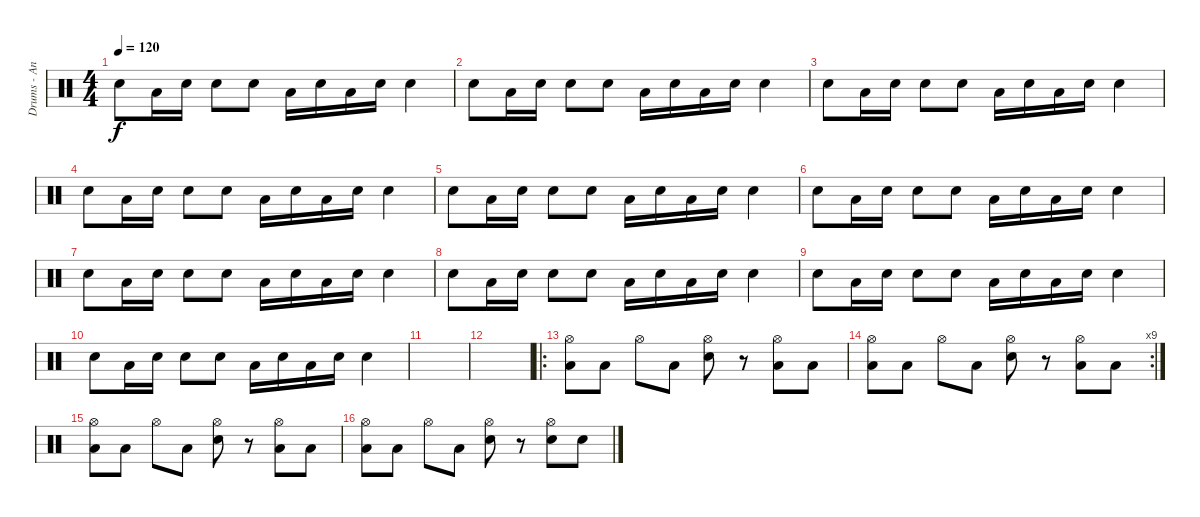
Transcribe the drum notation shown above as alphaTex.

\track ("Drums - Andrew" "Drums - An") {instrument percussion}
\staff {score}
\articulation defaults
\ts (4 4)
\tempo 120
\clef neutral
\ks c "Electric Snare (hit)".8{dy f} "Low Tom (hit)".16 "Electric Snare (hit)".16 "Electric Snare (hit)".8 "Electric Snare (hit)".8 "Low Tom (hit)".16 "Electric Snare (hit)".16 "Low Tom (hit)".16 "Electric Snare (hit)".16 "Electric Snare (hit)".4
|
"Electric Snare (hit)".8 "Low Tom (hit)".16 "Electric Snare (hit)".16 "Electric Snare (hit)".8 "Electric Snare (hit)".8 "Low Tom (hit)".16 "Electric Snare (hit)".16 "Low Tom (hit)".16 "Electric Snare (hit)".16 "Electric Snare (hit)".4 |
"Electric Snare (hit)".8 "Low Tom (hit)".16 "Electric Snare (hit)".16 "Electric Snare (hit)".8 "Electric Snare (hit)".8 "Low Tom (hit)".16 "Electric Snare (hit)".16 "Low Tom (hit)".16 "Electric Snare (hit)".16 "Electric Snare (hit)".4 |
"Electric Snare (hit)".8 "Low Tom (hit)".16 "Electric Snare (hit)".16 "Electric Snare (hit)".8 "Electric Snare (hit)".8 "Low Tom (hit)".16 "Electric Snare (hit)".16 "Low Tom (hit)".16 "Electric Snare (hit)".16 "Electric Snare (hit)".4 |
"Electric Snare (hit)".8 "Low Tom (hit)".16 "Electric Snare (hit)".16 "Electric Snare (hit)".8 "Electric Snare (hit)".8 "Low Tom (hit)".16 "Electric Snare (hit)".16 "Low Tom (hit)".16 "Electric Snare (hit)".16 "Electric Snare (hit)".4 |
"Electric Snare (hit)".8 "Low Tom (hit)".16 "Electric Snare (hit)".16 "Electric Snare (hit)".8 "Electric Snare (hit)".8 "Low Tom (hit)".16 "Electric Snare (hit)".16 "Low Tom (hit)".16 "Electric Snare (hit)".16 "Electric Snare (hit)".4 |
"Electric Snare (hit)".8 "Low Tom (hit)".16 "Electric Snare (hit)".16 "Electric Snare (hit)".8 "Electric Snare (hit)".8 "Low Tom (hit)".16 "Electric Snare (hit)".16 "Low Tom (hit)".16 "Electric Snare (hit)".16 "Electric Snare (hit)".4 |
"Electric Snare (hit)".8 "Low Tom (hit)".16 "Electric Snare (hit)".16 "Electric Snare (hit)".8 "Electric Snare (hit)".8 "Low Tom (hit)".16 "Electric Snare (hit)".16 "Low Tom (hit)".16 "Electric Snare (hit)".16 "Electric Snare (hit)".4 |
"Electric Snare (hit)".8 "Low Tom (hit)".16 "Electric Snare (hit)".16 "Electric Snare (hit)".8 "Electric Snare (hit)".8 "Low Tom (hit)".16 "Electric Snare (hit)".16 "Low Tom (hit)".16 "Electric Snare (hit)".16 "Electric Snare (hit)".4 |
"Electric Snare (hit)".8 "Low Tom (hit)".16 "Electric Snare (hit)".16 "Electric Snare (hit)".8 "Electric Snare (hit)".8 "Low Tom (hit)".16 "Electric Snare (hit)".16 "Low Tom (hit)".16 "Electric Snare (hit)".16 "Electric Snare (hit)".4 |
|
|
\ro
("Hi-Hat (open)" "Low Tom (hit)").8 "Low Tom (hit)".8 "Hi-Hat (open)".8 "Low Tom (hit)".8 ("Hi-Hat (open)" "Electric Snare (hit)").8 r.8 ("Hi-Hat (open)" "Low Tom (hit)").8 "Low Tom (hit)".8 |
\rc 9
("Hi-Hat (open)" "Low Tom (hit)").8 "Low Tom (hit)".8 "Hi-Hat (open)".8 "Low Tom (hit)".8 ("Hi-Hat (open)" "Electric Snare (hit)").8 r.8 ("Hi-Hat (open)" "Low Tom (hit)").8 "Low Tom (hit)".8 |
("Hi-Hat (open)" "Low Tom (hit)").8 "Low Tom (hit)".8 "Hi-Hat (open)".8 "Low Tom (hit)".8 ("Hi-Hat (open)" "Electric Snare (hit)").8 r.8 ("Hi-Hat (open)" "Low Tom (hit)").8 "Low Tom (hit)".8 |
("Hi-Hat (open)" "Low Tom (hit)").8 "Low Tom (hit)".8 "Hi-Hat (open)".8 "Low Tom (hit)".8 ("Hi-Hat (open)" "Electric Snare (hit)").8 r.8 ("Hi-Hat (open)" "Electric Snare (hit)").8 "Electric Snare (hit)".8
